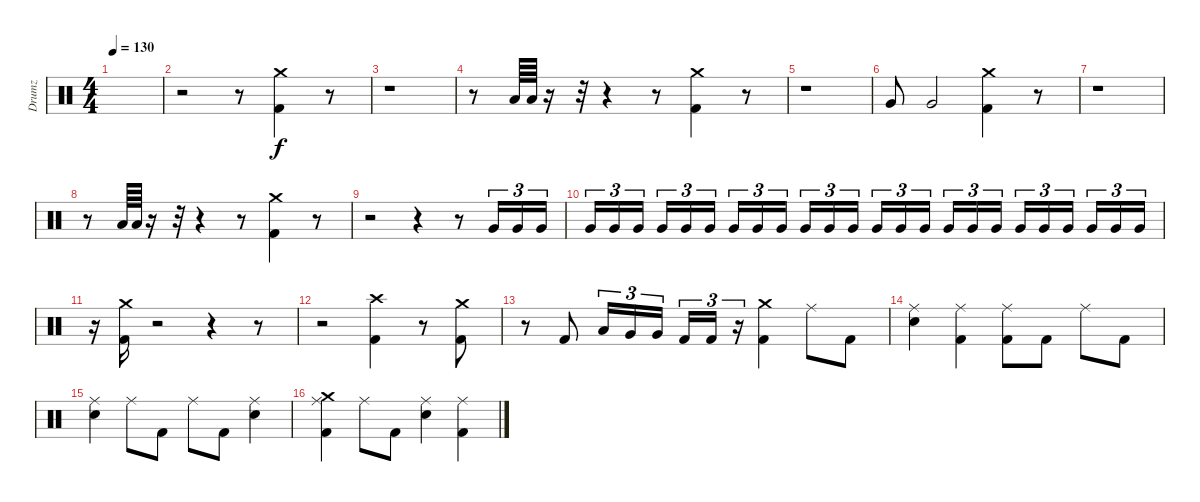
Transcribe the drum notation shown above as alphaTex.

\track ("Drumz" "Drumz") {instrument percussion}
\staff {score}
\articulation defaults
\ts (4 4)
\tempo 130
\clef neutral
\ks c
|
r.2 r.8 ("Kick (hit) 2" "Crash medium (hit)").4 r.8 |
r.1 |
r.8 "Low Tom (hit)".64 "Low Tom (hit)".64 r.16 r.32 r.4 r.8 ("Kick (hit) 2" "Crash medium (hit)").4 r.8 |
r.1 |
"Very Low Tom (hit)".8 "Very Low Tom (hit)".2 ("Kick (hit) 2" "Crash medium (hit)").4 r.8 |
r.1 |
r.8 "Low Tom (hit)".64 "Low Tom (hit)".64 r.16 r.32 r.4 r.8 ("Kick (hit) 2" "Crash medium (hit)").4 r.8 |
r.2 r.4 r.8 "Very Low Tom (hit)".16{tu (3 2)} "Very Low Tom (hit)".16{tu (3 2) volume 12} "Very Low Tom (hit)".16{tu (3 2) volume 9} |
"Very Low Tom (hit)".16{tu (3 2) volume 8} "Very Low Tom (hit)".16{tu (3 2) volume 6} "Very Low Tom (hit)".16{tu (3 2) volume 6} "Very Low Tom (hit)".16{tu (3 2) volume 6} "Very Low Tom (hit)".16{tu (3 2) volume 6} "Very Low Tom (hit)".16{tu (3 2) volume 7} "Very Low Tom (hit)".16{tu (3 2) volume 7} "Very Low Tom (hit)".16{tu (3 2) volume 7} "Very Low Tom (hit)".16{tu (3 2) volume 8} "Very Low Tom (hit)".16{tu (3 2) volume 8} "Very Low Tom (hit)".16{tu (3 2) volume 8} "Very Low Tom (hit)".16{tu (3 2) volume 8} "Very Low Tom (hit)".16{tu (3 2) volume 10} "Very Low Tom (hit)".16{tu (3 2) volume 10} "Very Low Tom (hit)".16{tu (3 2) volume 10} "Very Low Tom (hit)".16{tu (3 2) volume 11} "Very Low Tom (hit)".16{tu (3 2) volume 11} "Very Low Tom (hit)".16{tu (3 2) volume 11} "Very Low Tom (hit)".16{tu (3 2) volume 10} "Very Low Tom (hit)".16{tu (3 2) volume 10} "Very Low Tom (hit)".16{tu (3 2) volume 10} "Very Low Tom (hit)".16{tu (3 2) volume 9} "Very Low Tom (hit)".16{tu (3 2) volume 8} "Very Low Tom (hit)".16{tu (3 2) volume 6} |
r.16{volume 13} ("Kick (hit) 2" "Crash medium (hit)").16 r.2 r.4 r.8 |
r.2 ("Kick (hit) 2" "Crash high (hit)").4 r.8 ("Kick (hit) 2" "Crash medium (hit)").8 |
r.8 "Kick (hit) 2".8 "Low Tom (hit)".16{tu (3 2)} "Very Low Tom (hit)".16{tu (3 2)} "Very Low Tom (hit)".16{tu (3 2)} "Kick (hit) 2".16{tu (3 2)} "Kick (hit) 2".16{tu (3 2)} r.16{tu (3 2)} ("Kick (hit) 2" "Crash medium (hit)").4 "Ride (middle)".8 "Kick (hit) 2".8 |
("Snare (hit) 2" "Ride (middle)").4 ("Kick (hit) 2" "Ride (middle)").4 ("Kick (hit) 2" "Ride (middle)").8 "Kick (hit) 2".8 "Ride (middle)".8 "Kick (hit) 2".8 |
("Snare (hit) 2" "Ride (middle)").4 "Ride (middle)".8 "Kick (hit) 2".8 "Ride (middle)".8 "Kick (hit) 2".8 ("Snare (hit) 2" "Ride (middle)").4 |
("Kick (hit) 2" "Ride (middle)" "Crash medium (hit)").4 "Ride (middle)".8 "Kick (hit) 2".8 ("Snare (hit) 2" "Ride (middle)").4 ("Kick (hit) 2" "Ride (middle)").4
